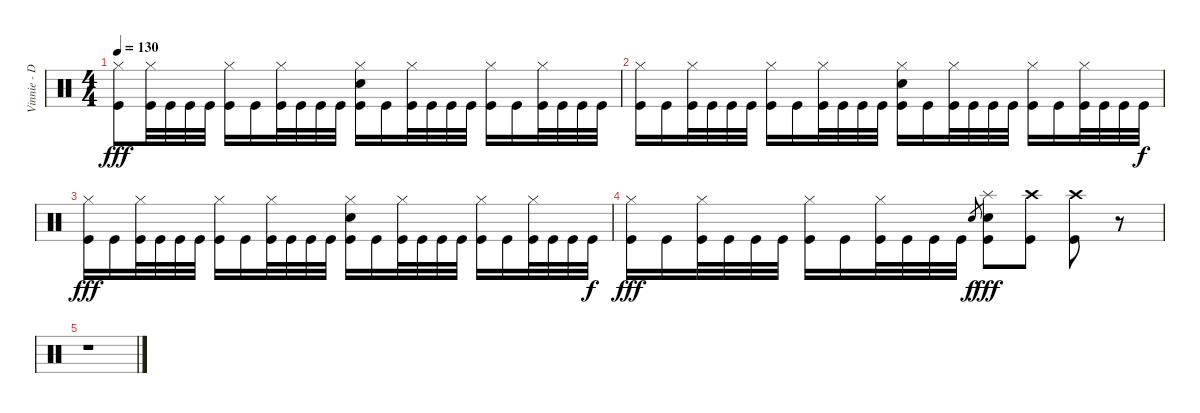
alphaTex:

\track ("Vinnie - Drums" "Vinnie - D") {instrument percussion}
\staff {score}
\articulation defaults
\ts (4 4)
\tempo 130
\clef neutral
\ks c
("Hi-Hat (closed)" "Kick (hit)").8{dy fff} ("Hi-Hat (closed)" "Kick (hit)").32 "Kick (hit)".32 "Kick (hit)".32 "Kick (hit)".32 ("Hi-Hat (closed)" "Kick (hit)").16 "Kick (hit)".16 ("Hi-Hat (closed)" "Kick (hit)").32 "Kick (hit)".32 "Kick (hit)".32 "Kick (hit)".32 ("Hi-Hat (closed)" "Electric Snare (hit)" "Kick (hit)").16 "Kick (hit)".16 ("Hi-Hat (closed)" "Kick (hit)").32 "Kick (hit)".32 "Kick (hit)".32 "Kick (hit)".32 ("Hi-Hat (closed)" "Kick (hit)").16 "Kick (hit)".16 ("Hi-Hat (closed)" "Kick (hit)").32 "Kick (hit)".32 "Kick (hit)".32 "Kick (hit)".32 |
("Hi-Hat (closed)" "Kick (hit)").16 "Kick (hit)".16 ("Hi-Hat (closed)" "Kick (hit)").32 "Kick (hit)".32 "Kick (hit)".32 "Kick (hit)".32 ("Hi-Hat (closed)" "Kick (hit)").16 "Kick (hit)".16 ("Hi-Hat (closed)" "Kick (hit)").32 "Kick (hit)".32 "Kick (hit)".32 "Kick (hit)".32 ("Hi-Hat (closed)" "Electric Snare (hit)" "Kick (hit)").16 "Kick (hit)".16 ("Hi-Hat (closed)" "Kick (hit)").32 "Kick (hit)".32 "Kick (hit)".32 "Kick (hit)".32 ("Hi-Hat (closed)" "Kick (hit)").16 "Kick (hit)".16 ("Hi-Hat (closed)" "Kick (hit)").32 "Kick (hit)".32 "Kick (hit)".32 "Kick (hit)".32{dy f} |
("Hi-Hat (closed)" "Kick (hit)").16{dy fff} "Kick (hit)".16 ("Hi-Hat (closed)" "Kick (hit)").32 "Kick (hit)".32 "Kick (hit)".32 "Kick (hit)".32 ("Hi-Hat (closed)" "Kick (hit)").16 "Kick (hit)".16 ("Hi-Hat (closed)" "Kick (hit)").32 "Kick (hit)".32 "Kick (hit)".32 "Kick (hit)".32 ("Hi-Hat (closed)" "Electric Snare (hit)" "Kick (hit)").16 "Kick (hit)".16 ("Hi-Hat (closed)" "Kick (hit)").32 "Kick (hit)".32 "Kick (hit)".32 "Kick (hit)".32 ("Hi-Hat (closed)" "Kick (hit)").16 "Kick (hit)".16 ("Hi-Hat (closed)" "Kick (hit)").32 "Kick (hit)".32 "Kick (hit)".32 "Kick (hit)".32{dy f} |
("Hi-Hat (closed)" "Kick (hit)").16{dy fff} "Kick (hit)".16 ("Hi-Hat (closed)" "Kick (hit)").32 "Kick (hit)".32 "Kick (hit)".32 "Kick (hit)".32 ("Hi-Hat (closed)" "Kick (hit)").16 "Kick (hit)".16 ("Hi-Hat (closed)" "Kick (hit)").32 "Kick (hit)".32 "Kick (hit)".32 "Kick (hit)".32 "Electric Snare (hit)".8{gr dy f} ("Splash (hit)" "Electric Snare (hit)" "Kick (hit)").8{dy fff} ("Crash high (hit)" "Kick (hit)").8 ("Crash high (hit)" "Kick (hit)").8 r.8 |
r.1
